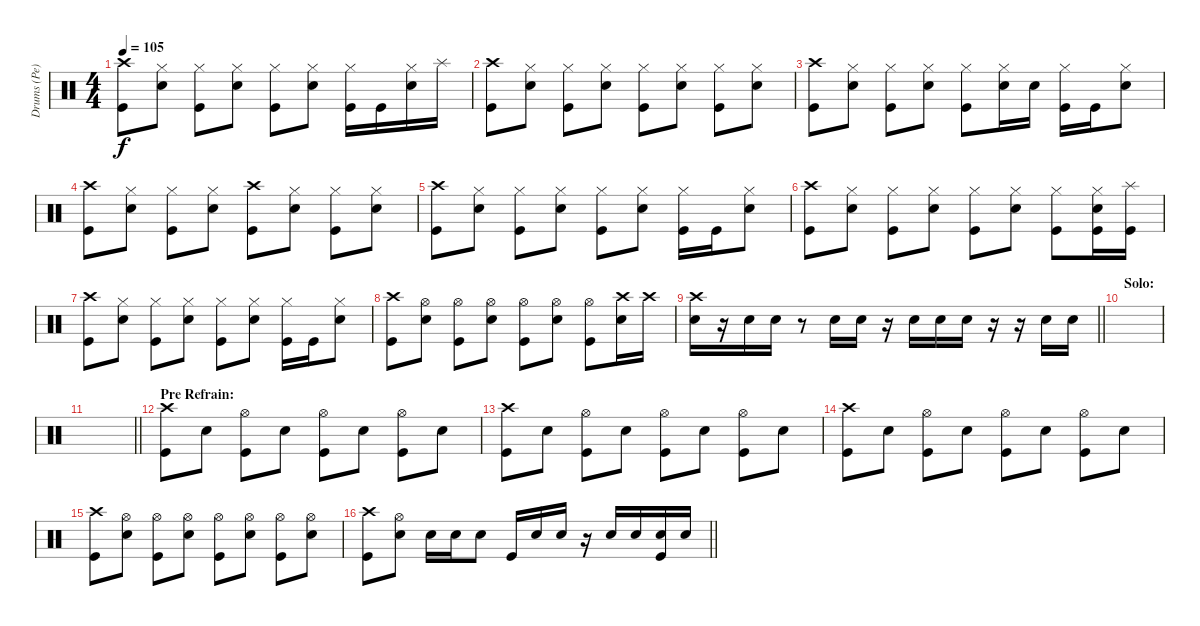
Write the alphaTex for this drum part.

\track ("Drums (Pe)" "Drums (Pe)") {instrument percussion}
\staff {score}
\articulation defaults
\ts (4 4)
\tempo 105
\clef neutral
\ks c
("Crash high (hit)" "Kick (hit)").8{dy f} ("Snare (hit) 2" "Hi-Hat (closed)").8 ("Hi-Hat (closed)" "Kick (hit)").8 ("Snare (hit) 2" "Hi-Hat (closed)").8 ("Hi-Hat (closed)" "Kick (hit)").8 ("Snare (hit) 2" "Hi-Hat (closed)").8 ("Hi-Hat (closed)" "Kick (hit)").16 "Kick (hit)".16 ("Hi-Hat (closed)" "Snare (hit) 2").16 "Splash (hit)".16 |
("Crash high (hit)" "Kick (hit)").8 ("Snare (hit) 2" "Hi-Hat (closed)").8 ("Hi-Hat (closed)" "Kick (hit)").8 ("Snare (hit) 2" "Hi-Hat (closed)").8 ("Hi-Hat (closed)" "Kick (hit)").8 ("Snare (hit) 2" "Hi-Hat (closed)").8 ("Hi-Hat (closed)" "Kick (hit)").8 ("Snare (hit) 2" "Hi-Hat (closed)").8 |
("Crash high (hit)" "Kick (hit)").8 ("Snare (hit) 2" "Hi-Hat (closed)").8 ("Hi-Hat (closed)" "Kick (hit)").8 ("Snare (hit) 2" "Hi-Hat (closed)").8 ("Hi-Hat (closed)" "Kick (hit)").8 ("Snare (hit) 2" "Hi-Hat (closed)").16 "Snare (hit) 2".16 ("Hi-Hat (closed)" "Kick (hit)").16 "Kick (hit)".16 ("Snare (hit) 2" "Hi-Hat (closed)").8 |
("Crash high (hit)" "Kick (hit)").8 ("Snare (hit) 2" "Hi-Hat (closed)").8 ("Hi-Hat (closed)" "Kick (hit)").8 ("Snare (hit) 2" "Hi-Hat (closed)").8 ("Crash high (hit)" "Kick (hit)").8 ("Snare (hit) 2" "Hi-Hat (closed)").8 ("Hi-Hat (closed)" "Kick (hit)").8 ("Snare (hit) 2" "Hi-Hat (closed)").8 |
("Crash high (hit)" "Kick (hit)").8 ("Snare (hit) 2" "Hi-Hat (closed)").8 ("Hi-Hat (closed)" "Kick (hit)").8 ("Snare (hit) 2" "Hi-Hat (closed)").8 ("Hi-Hat (closed)" "Kick (hit)").8 ("Snare (hit) 2" "Hi-Hat (closed)").8 ("Hi-Hat (closed)" "Kick (hit)").16 "Kick (hit)".16 ("Snare (hit) 2" "Hi-Hat (closed)").8 |
("Crash high (hit)" "Kick (hit)").8 ("Snare (hit) 2" "Hi-Hat (closed)").8 ("Hi-Hat (closed)" "Kick (hit)").8 ("Snare (hit) 2" "Hi-Hat (closed)").8 ("Hi-Hat (closed)" "Kick (hit)").8 ("Snare (hit) 2" "Hi-Hat (closed)").8 ("Hi-Hat (closed)" "Kick (hit)").8 ("Hi-Hat (closed)" "Snare (hit) 2" "Kick (hit)").16 ("Splash (hit)" "Kick (hit)").16 |
("Crash high (hit)" "Kick (hit)").8 ("Snare (hit) 2" "Hi-Hat (closed)").8 ("Hi-Hat (closed)" "Kick (hit)").8 ("Snare (hit) 2" "Hi-Hat (closed)").8 ("Hi-Hat (closed)" "Kick (hit)").8 ("Snare (hit) 2" "Hi-Hat (closed)").8 ("Hi-Hat (closed)" "Kick (hit)").16 "Kick (hit)".16 ("Snare (hit) 2" "Hi-Hat (closed)").8 |
("Crash high (hit)" "Kick (hit)").8 ("Hi-Hat (open)" "Snare (hit) 2").8 ("Hi-Hat (open)" "Kick (hit)").8 ("Hi-Hat (open)" "Snare (hit) 2").8 ("Hi-Hat (open)" "Kick (hit)").8 ("Hi-Hat (open)" "Snare (hit) 2").8 ("Hi-Hat (open)" "Kick (hit)").8 ("Crash high (hit)" "Snare (hit) 2").16 "Crash high (hit)".16 |
\barLineRight lightlight
("Crash high (hit)" "Snare (hit) 2").16 r.16 "Snare (hit) 2".16 "Snare (hit) 2".16 r.8 "Snare (hit) 2".16 "Snare (hit) 2".16 r.16 "Snare (hit) 2".16 "Snare (hit) 2".16 "Snare (hit) 2".16 r.16 r.16 "Snare (hit) 2".16 "Snare (hit) 2".16 |
\section ("" "Solo:")
|
\barLineRight lightlight
|
\section ("" "Pre Refrain:")
("Crash high (hit)" "Kick (hit)").8 "Snare (hit) 2".8 ("Hi-Hat (open)" "Kick (hit)").8 "Snare (hit) 2".8 ("Hi-Hat (open)" "Kick (hit)").8 "Snare (hit) 2".8 ("Hi-Hat (open)" "Kick (hit)").8 "Snare (hit) 2".8 |
("Crash high (hit)" "Kick (hit)").8 "Snare (hit) 2".8 ("Hi-Hat (open)" "Kick (hit)").8 "Snare (hit) 2".8 ("Hi-Hat (open)" "Kick (hit)").8 "Snare (hit) 2".8 ("Hi-Hat (open)" "Kick (hit)").8 "Snare (hit) 2".8 |
("Crash high (hit)" "Kick (hit)").8 "Snare (hit) 2".8 ("Hi-Hat (open)" "Kick (hit)").8 "Snare (hit) 2".8 ("Hi-Hat (open)" "Kick (hit)").8 "Snare (hit) 2".8 ("Hi-Hat (open)" "Kick (hit)").8 "Snare (hit) 2".8 |
("Crash high (hit)" "Kick (hit)").8 ("Snare (hit) 2" "Hi-Hat (open)").8 ("Hi-Hat (open)" "Kick (hit)").8 ("Snare (hit) 2" "Hi-Hat (open)").8 ("Hi-Hat (open)" "Kick (hit)").8 ("Snare (hit) 2" "Hi-Hat (open)").8 ("Kick (hit)" "Hi-Hat (open)").8 ("Snare (hit) 2" "Hi-Hat (open)").8 |
\barLineRight lightlight
("Crash high (hit)" "Kick (hit)").8 ("Snare (hit) 2" "Hi-Hat (open)").8 "Snare (hit) 2".16 "Snare (hit) 2".16 "Snare (hit) 2".8 "Kick (hit)".16 "Snare (hit) 2".16 "Snare (hit) 2".16 r.16 "Snare (hit) 2".16 "Snare (hit) 2".16 ("Snare (hit) 2" "Kick (hit)").16 "Snare (hit) 2".16
